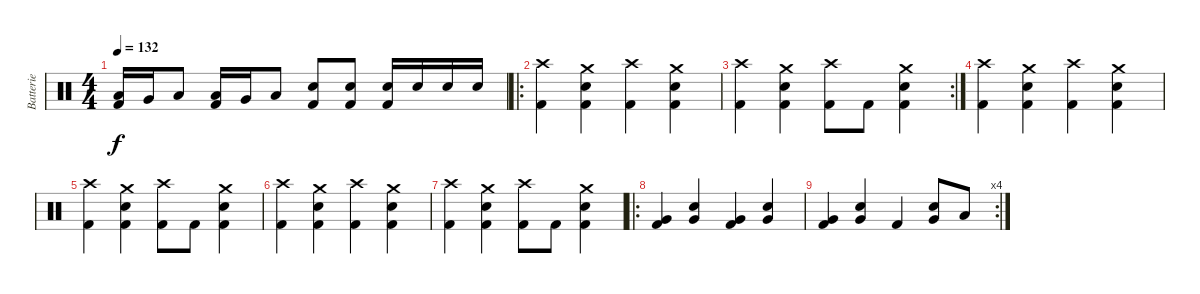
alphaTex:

\track ("Batterie" "Batterie") {instrument percussion}
\staff {score}
\articulation defaults
\ts (4 4)
\tempo 132
\clef neutral
\ks c
("Low Tom (hit)" "Kick (hit) 2").16{dy f} "Very Low Tom (hit)".16 "Low Floor Tom (hit)".8 ("Low Tom (hit)" "Kick (hit) 2").16 "Very Low Tom (hit)".16 "Low Floor Tom (hit)".8 ("Electric Snare (hit)" "Kick (hit) 2").8 ("Electric Snare (hit)" "Kick (hit) 2").8 ("Electric Snare (hit)" "Kick (hit) 2").16 "Electric Snare (hit)".16 "Electric Snare (hit)".16 "Electric Snare (hit)".16 |
\ro
("Crash high (hit)" "Kick (hit) 2").4 ("Crash medium (hit)" "Electric Snare (hit)" "Kick (hit) 2").4 ("Crash high (hit)" "Kick (hit) 2").4 ("Crash medium (hit)" "Electric Snare (hit)" "Kick (hit) 2").4 |
\rc 2
("Crash high (hit)" "Kick (hit) 2").4 ("Crash medium (hit)" "Electric Snare (hit)" "Kick (hit) 2").4 ("Crash high (hit)" "Kick (hit) 2").8 "Kick (hit) 2".8 ("Crash medium (hit)" "Electric Snare (hit)" "Kick (hit) 2").4 |
("Crash high (hit)" "Kick (hit) 2").4 ("Crash medium (hit)" "Electric Snare (hit)" "Kick (hit) 2").4 ("Crash high (hit)" "Kick (hit) 2").4 ("Crash medium (hit)" "Electric Snare (hit)" "Kick (hit) 2").4 |
("Crash high (hit)" "Kick (hit) 2").4 ("Crash medium (hit)" "Electric Snare (hit)" "Kick (hit) 2").4 ("Crash high (hit)" "Kick (hit) 2").8 "Kick (hit) 2".8 ("Crash medium (hit)" "Electric Snare (hit)" "Kick (hit) 2").4 |
("Crash high (hit)" "Kick (hit) 2").4 ("Crash medium (hit)" "Electric Snare (hit)" "Kick (hit) 2").4 ("Crash high (hit)" "Kick (hit) 2").4 ("Crash medium (hit)" "Electric Snare (hit)" "Kick (hit) 2").4 |
("Crash high (hit)" "Kick (hit) 2").4 ("Crash medium (hit)" "Electric Snare (hit)" "Kick (hit) 2").4 ("Crash high (hit)" "Kick (hit) 2").8 "Kick (hit) 2".8 ("Crash medium (hit)" "Electric Snare (hit)" "Kick (hit) 2").4 |
\ro
("Very Low Tom (hit)" "Kick (hit) 2").4 ("Electric Snare (hit)" "Very Low Tom (hit)").4 ("Very Low Tom (hit)" "Kick (hit) 2").4 ("Electric Snare (hit)" "Very Low Tom (hit)").4 |
\rc 4
("Very Low Tom (hit)" "Kick (hit) 2").4 ("Electric Snare (hit)" "Very Low Tom (hit)").4 "Kick (hit) 2".4 ("Electric Snare (hit)" "Very Low Tom (hit)").8 "Low Tom (hit)".8
